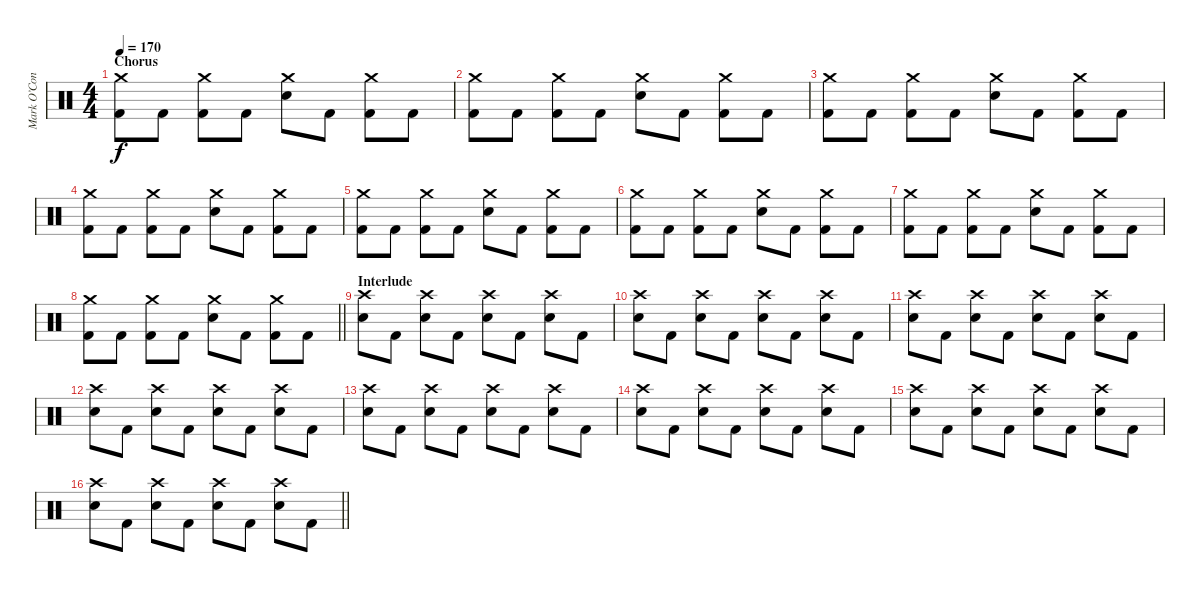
\track ("Mark O’Connell - Drums" "Mark O’Con") {instrument percussion}
\staff {score}
\articulation defaults
\ts (4 4)
\section ("" "Chorus")
\tempo 170
\clef neutral
\ks c
("Crash medium (hit)" "Kick (hit) 2").8{dy f} "Kick (hit) 2".8 ("Crash medium (hit)" "Kick (hit) 2").8 "Kick (hit) 2".8 ("Crash medium (hit)" "Snare (hit) 2").8 "Kick (hit) 2".8 ("Crash medium (hit)" "Kick (hit) 2").8 "Kick (hit) 2".8 |
("Crash medium (hit)" "Kick (hit) 2").8 "Kick (hit) 2".8 ("Crash medium (hit)" "Kick (hit) 2").8 "Kick (hit) 2".8 ("Crash medium (hit)" "Snare (hit) 2").8 "Kick (hit) 2".8 ("Crash medium (hit)" "Kick (hit) 2").8 "Kick (hit) 2".8 |
("Crash medium (hit)" "Kick (hit) 2").8 "Kick (hit) 2".8 ("Crash medium (hit)" "Kick (hit) 2").8 "Kick (hit) 2".8 ("Crash medium (hit)" "Snare (hit) 2").8 "Kick (hit) 2".8 ("Crash medium (hit)" "Kick (hit) 2").8 "Kick (hit) 2".8 |
("Crash medium (hit)" "Kick (hit) 2").8 "Kick (hit) 2".8 ("Crash medium (hit)" "Kick (hit) 2").8 "Kick (hit) 2".8 ("Crash medium (hit)" "Snare (hit) 2").8 "Kick (hit) 2".8 ("Crash medium (hit)" "Kick (hit) 2").8 "Kick (hit) 2".8 |
("Crash medium (hit)" "Kick (hit) 2").8 "Kick (hit) 2".8 ("Crash medium (hit)" "Kick (hit) 2").8 "Kick (hit) 2".8 ("Crash medium (hit)" "Snare (hit) 2").8 "Kick (hit) 2".8 ("Crash medium (hit)" "Kick (hit) 2").8 "Kick (hit) 2".8 |
("Crash medium (hit)" "Kick (hit) 2").8 "Kick (hit) 2".8 ("Crash medium (hit)" "Kick (hit) 2").8 "Kick (hit) 2".8 ("Crash medium (hit)" "Snare (hit) 2").8 "Kick (hit) 2".8 ("Crash medium (hit)" "Kick (hit) 2").8 "Kick (hit) 2".8 |
("Crash medium (hit)" "Kick (hit) 2").8 "Kick (hit) 2".8 ("Crash medium (hit)" "Kick (hit) 2").8 "Kick (hit) 2".8 ("Crash medium (hit)" "Snare (hit) 2").8 "Kick (hit) 2".8 ("Crash medium (hit)" "Kick (hit) 2").8 "Kick (hit) 2".8 |
\barLineRight lightlight
("Crash medium (hit)" "Kick (hit) 2").8 "Kick (hit) 2".8 ("Crash medium (hit)" "Kick (hit) 2").8 "Kick (hit) 2".8 ("Crash medium (hit)" "Snare (hit) 2").8 "Kick (hit) 2".8 ("Crash medium (hit)" "Kick (hit) 2").8 "Kick (hit) 2".8 |
\section ("" "Interlude")
("Crash high (hit)" "Snare (hit) 2").8 "Kick (hit) 2".8 ("Crash high (hit)" "Snare (hit) 2").8 "Kick (hit) 2".8 ("Crash high (hit)" "Snare (hit) 2").8 "Kick (hit) 2".8 ("Crash high (hit)" "Snare (hit) 2").8 "Kick (hit) 2".8 |
("Crash high (hit)" "Snare (hit) 2").8 "Kick (hit) 2".8 ("Crash high (hit)" "Snare (hit) 2").8 "Kick (hit) 2".8 ("Crash high (hit)" "Snare (hit) 2").8 "Kick (hit) 2".8 ("Crash high (hit)" "Snare (hit) 2").8 "Kick (hit) 2".8 |
("Crash high (hit)" "Snare (hit) 2").8 "Kick (hit) 2".8 ("Crash high (hit)" "Snare (hit) 2").8 "Kick (hit) 2".8 ("Crash high (hit)" "Snare (hit) 2").8 "Kick (hit) 2".8 ("Crash high (hit)" "Snare (hit) 2").8 "Kick (hit) 2".8 |
("Crash high (hit)" "Snare (hit) 2").8 "Kick (hit) 2".8 ("Crash high (hit)" "Snare (hit) 2").8 "Kick (hit) 2".8 ("Crash high (hit)" "Snare (hit) 2").8 "Kick (hit) 2".8 ("Crash high (hit)" "Snare (hit) 2").8 "Kick (hit) 2".8 |
("Crash high (hit)" "Snare (hit) 2").8 "Kick (hit) 2".8 ("Crash high (hit)" "Snare (hit) 2").8 "Kick (hit) 2".8 ("Crash high (hit)" "Snare (hit) 2").8 "Kick (hit) 2".8 ("Crash high (hit)" "Snare (hit) 2").8 "Kick (hit) 2".8 |
("Crash high (hit)" "Snare (hit) 2").8 "Kick (hit) 2".8 ("Crash high (hit)" "Snare (hit) 2").8 "Kick (hit) 2".8 ("Crash high (hit)" "Snare (hit) 2").8 "Kick (hit) 2".8 ("Crash high (hit)" "Snare (hit) 2").8 "Kick (hit) 2".8 |
("Crash high (hit)" "Snare (hit) 2").8 "Kick (hit) 2".8 ("Crash high (hit)" "Snare (hit) 2").8 "Kick (hit) 2".8 ("Crash high (hit)" "Snare (hit) 2").8 "Kick (hit) 2".8 ("Crash high (hit)" "Snare (hit) 2").8 "Kick (hit) 2".8 |
\barLineRight lightlight
("Crash high (hit)" "Snare (hit) 2").8 "Kick (hit) 2".8 ("Crash high (hit)" "Snare (hit) 2").8 "Kick (hit) 2".8 ("Crash high (hit)" "Snare (hit) 2").8 "Kick (hit) 2".8 ("Crash high (hit)" "Snare (hit) 2").8 "Kick (hit) 2".8
